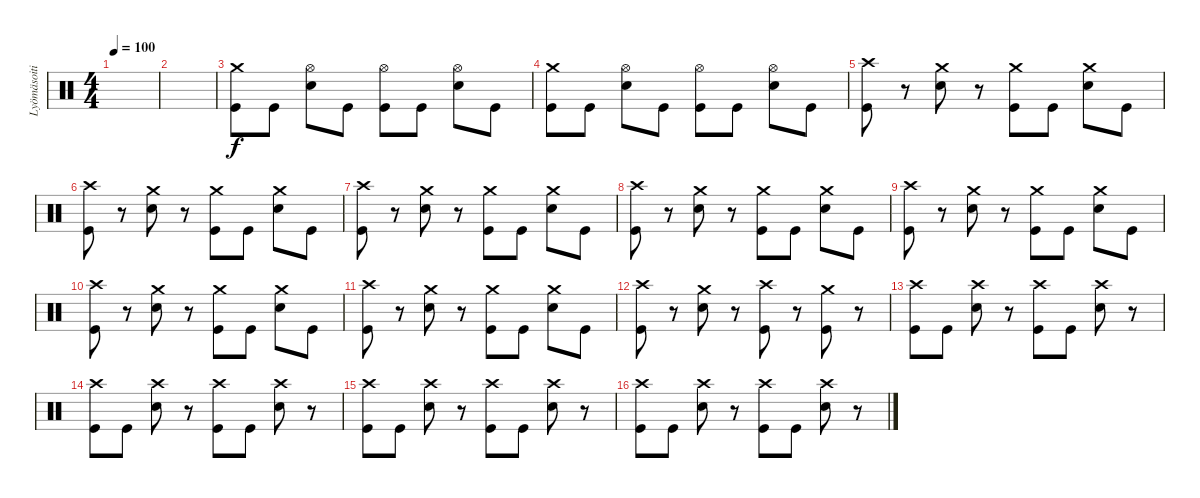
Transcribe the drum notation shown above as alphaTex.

\track ("Lyömäsoitin" "Lyömäsoiti") {instrument percussion}
\staff {score}
\articulation defaults
\ts (4 4)
\tempo 100
\clef neutral
\ks c
|
|
("Crash medium (hit)" "Kick (hit)").8 "Kick (hit)".8 ("Hi-Hat (open)" "Electric Snare (hit)").8 "Kick (hit)".8 ("Hi-Hat (open)" "Kick (hit)").8 "Kick (hit)".8 ("Hi-Hat (open)" "Electric Snare (hit)").8 "Kick (hit)".8 |
("Crash medium (hit)" "Kick (hit)").8 "Kick (hit)".8 ("Hi-Hat (open)" "Electric Snare (hit)").8 "Kick (hit)".8 ("Hi-Hat (open)" "Kick (hit)").8 "Kick (hit)".8 ("Hi-Hat (open)" "Electric Snare (hit)").8 "Kick (hit)".8 |
("Crash high (hit)" "Kick (hit)").8 r.8 ("Crash medium (hit)" "Electric Snare (hit)").8 r.8 ("Crash medium (hit)" "Kick (hit)").8 "Kick (hit)".8 ("Crash medium (hit)" "Electric Snare (hit)").8 "Kick (hit)".8 |
("Crash high (hit)" "Kick (hit)").8 r.8 ("Crash medium (hit)" "Electric Snare (hit)").8 r.8 ("Crash medium (hit)" "Kick (hit)").8 "Kick (hit)".8 ("Crash medium (hit)" "Electric Snare (hit)").8 "Kick (hit)".8 |
("Crash high (hit)" "Kick (hit)").8 r.8 ("Crash medium (hit)" "Electric Snare (hit)").8 r.8 ("Crash medium (hit)" "Kick (hit)").8 "Kick (hit)".8 ("Crash medium (hit)" "Electric Snare (hit)").8 "Kick (hit)".8 |
("Crash high (hit)" "Kick (hit)").8 r.8 ("Crash medium (hit)" "Electric Snare (hit)").8 r.8 ("Crash medium (hit)" "Kick (hit)").8 "Kick (hit)".8 ("Crash medium (hit)" "Electric Snare (hit)").8 "Kick (hit)".8 |
("Crash high (hit)" "Kick (hit)").8 r.8 ("Crash medium (hit)" "Electric Snare (hit)").8 r.8 ("Crash medium (hit)" "Kick (hit)").8 "Kick (hit)".8 ("Crash medium (hit)" "Electric Snare (hit)").8 "Kick (hit)".8 |
("Crash high (hit)" "Kick (hit)").8 r.8 ("Crash medium (hit)" "Electric Snare (hit)").8 r.8 ("Crash medium (hit)" "Kick (hit)").8 "Kick (hit)".8 ("Crash medium (hit)" "Electric Snare (hit)").8 "Kick (hit)".8 |
("Crash high (hit)" "Kick (hit)").8 r.8 ("Crash medium (hit)" "Electric Snare (hit)").8 r.8 ("Crash medium (hit)" "Kick (hit)").8 "Kick (hit)".8 ("Crash medium (hit)" "Electric Snare (hit)").8 "Kick (hit)".8 |
("Crash high (hit)" "Kick (hit)").8 r.8 ("Crash medium (hit)" "Electric Snare (hit)").8 r.8 ("Crash high (hit)" "Kick (hit)").8 r.8 ("Crash medium (hit)" "Kick (hit)").8 r.8 |
("Crash high (hit)" "Kick (hit)").8 "Kick (hit)".8 ("Crash high (hit)" "Electric Snare (hit)").8 r.8 ("Crash high (hit)" "Kick (hit)").8 "Kick (hit)".8 ("Crash high (hit)" "Electric Snare (hit)").8 r.8 |
("Crash high (hit)" "Kick (hit)").8 "Kick (hit)".8 ("Crash high (hit)" "Electric Snare (hit)").8 r.8 ("Crash high (hit)" "Kick (hit)").8 "Kick (hit)".8 ("Crash high (hit)" "Electric Snare (hit)").8 r.8 |
("Crash high (hit)" "Kick (hit)").8 "Kick (hit)".8 ("Crash high (hit)" "Electric Snare (hit)").8 r.8 ("Crash high (hit)" "Kick (hit)").8 "Kick (hit)".8 ("Crash high (hit)" "Electric Snare (hit)").8 r.8 |
("Crash high (hit)" "Kick (hit)").8 "Kick (hit)".8 ("Crash high (hit)" "Electric Snare (hit)").8 r.8 ("Crash high (hit)" "Kick (hit)").8 "Kick (hit)".8 ("Crash high (hit)" "Electric Snare (hit)").8 r.8
